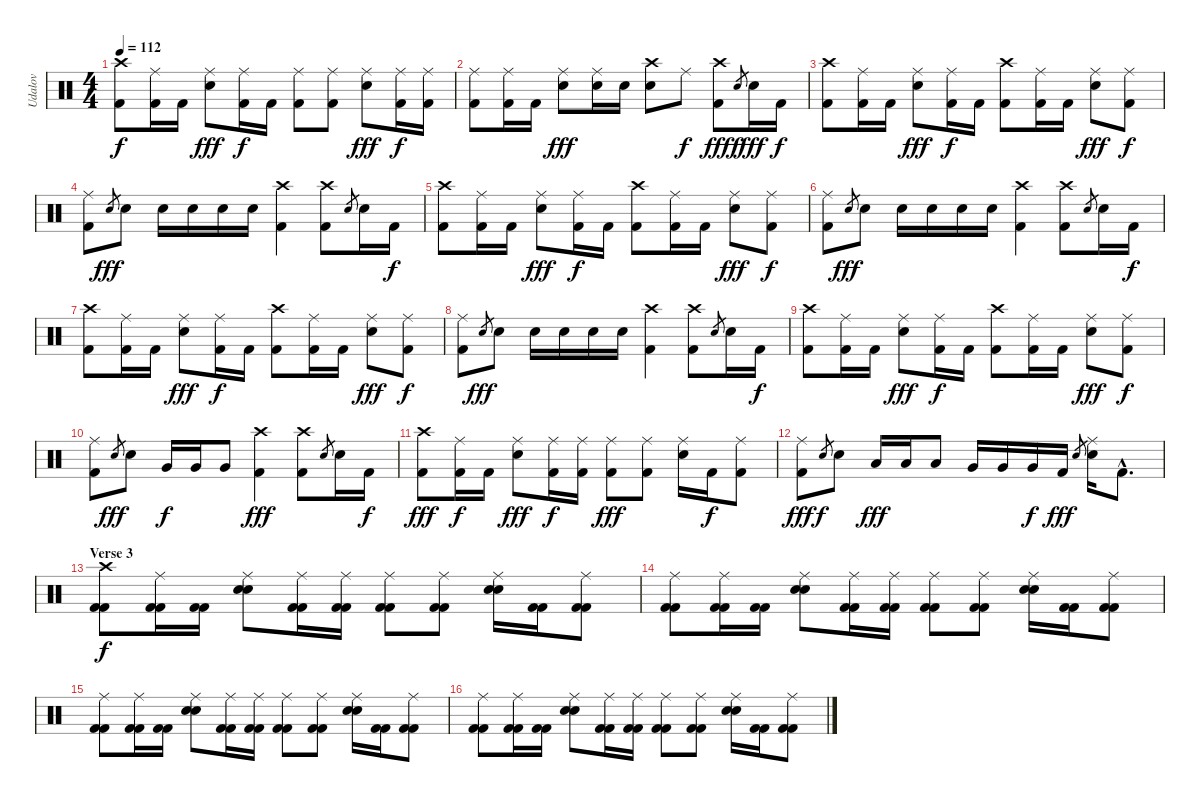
\track ("Udalov" "Udalov") {instrument percussion}
\staff {score}
\articulation defaults
\ts (4 4)
\tempo 112
\clef neutral
\ks c
("Crash high (hit)" "Kick (hit) 2").8{dy f} ("Ride (middle)" "Kick (hit) 2").16 "Kick (hit) 2".16 ("Ride (middle)" "Electric Snare (hit)").8{dy fff} ("Ride (middle)" "Kick (hit) 2").16{dy f} "Kick (hit) 2".16 ("Ride (middle)" "Kick (hit) 2").8 ("Ride (middle)" "Kick (hit) 2").8 ("Ride (middle)" "Electric Snare (hit)").8{dy fff} ("Ride (middle)" "Kick (hit) 2").16{dy f} ("Ride (middle)" "Kick (hit) 2").16 |
("Ride (middle)" "Kick (hit) 2").8 ("Ride (middle)" "Kick (hit) 2").16 "Kick (hit) 2".16 ("Ride (middle)" "Electric Snare (hit)").8{dy fff} ("Ride (middle)" "Electric Snare (hit)").16 "Electric Snare (hit)".16 ("Crash high (hit)" "Electric Snare (hit)").8 "Ride (middle)".8{dy f} ("Crash high (hit)" "Kick (hit) 2").8{dy fff} "Electric Snare (hit)".8{gr dy f} "Electric Snare (hit)".16{dy fff} "Kick (hit) 2".16{dy f} |
("Crash high (hit)" "Kick (hit) 2").8 ("Ride (middle)" "Kick (hit) 2").16 "Kick (hit) 2".16 ("Ride (middle)" "Electric Snare (hit)").8{dy fff} ("Ride (middle)" "Kick (hit) 2").16{dy f} "Kick (hit) 2".16 ("Crash high (hit)" "Kick (hit) 2").8 ("Ride (middle)" "Kick (hit) 2").16 "Kick (hit) 2".16 ("Ride (middle)" "Electric Snare (hit)").8{dy fff} ("Ride (middle)" "Kick (hit) 2").8{dy f} |
("Ride (middle)" "Kick (hit) 2").8 "Electric Snare (hit)".8{gr dy fff} "Electric Snare (hit)".8 "Electric Snare (hit)".16 "Electric Snare (hit)".16 "Electric Snare (hit)".16 "Electric Snare (hit)".16 ("Crash high (hit)" "Kick (hit) 2").4 ("Crash high (hit)" "Kick (hit) 2").8 "Electric Snare (hit)".8{gr} "Electric Snare (hit)".16 "Kick (hit) 2".16{dy f} |
("Crash high (hit)" "Kick (hit) 2").8 ("Ride (middle)" "Kick (hit) 2").16 "Kick (hit) 2".16 ("Ride (middle)" "Electric Snare (hit)").8{dy fff} ("Ride (middle)" "Kick (hit) 2").16{dy f} "Kick (hit) 2".16 ("Crash high (hit)" "Kick (hit) 2").8 ("Ride (middle)" "Kick (hit) 2").16 "Kick (hit) 2".16 ("Ride (middle)" "Electric Snare (hit)").8{dy fff} ("Ride (middle)" "Kick (hit) 2").8{dy f} |
("Ride (middle)" "Kick (hit) 2").8 "Electric Snare (hit)".8{gr dy fff} "Electric Snare (hit)".8 "Electric Snare (hit)".16 "Electric Snare (hit)".16 "Electric Snare (hit)".16 "Electric Snare (hit)".16 ("Crash high (hit)" "Kick (hit) 2").4 ("Crash high (hit)" "Kick (hit) 2").8 "Electric Snare (hit)".8{gr} "Electric Snare (hit)".16 "Kick (hit) 2".16{dy f} |
("Crash high (hit)" "Kick (hit) 2").8 ("Ride (middle)" "Kick (hit) 2").16 "Kick (hit) 2".16 ("Ride (middle)" "Electric Snare (hit)").8{dy fff} ("Ride (middle)" "Kick (hit) 2").16{dy f} "Kick (hit) 2".16 ("Crash high (hit)" "Kick (hit) 2").8 ("Ride (middle)" "Kick (hit) 2").16 "Kick (hit) 2".16 ("Ride (middle)" "Electric Snare (hit)").8{dy fff} ("Ride (middle)" "Kick (hit) 2").8{dy f} |
("Ride (middle)" "Kick (hit) 2").8 "Electric Snare (hit)".8{gr dy fff} "Electric Snare (hit)".8 "Electric Snare (hit)".16 "Electric Snare (hit)".16 "Electric Snare (hit)".16 "Electric Snare (hit)".16 ("Crash high (hit)" "Kick (hit) 2").4 ("Crash high (hit)" "Kick (hit) 2").8 "Electric Snare (hit)".8{gr} "Electric Snare (hit)".16 "Kick (hit) 2".16{dy f} |
("Crash high (hit)" "Kick (hit) 2").8 ("Ride (middle)" "Kick (hit) 2").16 "Kick (hit) 2".16 ("Ride (middle)" "Electric Snare (hit)").8{dy fff} ("Ride (middle)" "Kick (hit) 2").16{dy f} "Kick (hit) 2".16 ("Crash high (hit)" "Kick (hit) 2").8 ("Ride (middle)" "Kick (hit) 2").16 "Kick (hit) 2".16 ("Ride (middle)" "Electric Snare (hit)").8{dy fff} ("Ride (middle)" "Kick (hit) 2").8{dy f} |
("Ride (middle)" "Kick (hit) 2").8 "Electric Snare (hit)".8{gr dy fff} "Electric Snare (hit)".8 "Very Low Tom (hit)".16{dy f} "Very Low Tom (hit)".16 "Very Low Tom (hit)".8 ("Crash high (hit)" "Kick (hit) 2").4{dy fff} ("Crash high (hit)" "Kick (hit) 2").8 "Electric Snare (hit)".8{gr} "Electric Snare (hit)".16 "Kick (hit) 2".16{dy f} |
("Crash high (hit)" "Kick (hit) 2").8{dy fff} ("Ride (middle)" "Kick (hit) 2").16{dy f} "Kick (hit) 2".16 ("Ride (middle)" "Electric Snare (hit)").8{dy fff} ("Ride (middle)" "Kick (hit) 2").16{dy f} ("Ride (middle)" "Kick (hit) 2").16 ("Ride (middle)" "Kick (hit) 2").8{dy fff} ("Ride (middle)" "Kick (hit) 2").8 ("Ride (middle)" "Electric Snare (hit)").16 "Kick (hit) 2".16{dy f} ("Ride (middle)" "Kick (hit) 2").8 |
("Ride (middle)" "Kick (hit) 2").8{dy fff} "Electric Snare (hit)".8{gr dy f} "Electric Snare (hit)".8 "Low Tom (hit)".16{dy fff} "Low Tom (hit)".16 "Low Tom (hit)".8 "Very Low Tom (hit)".16 "Very Low Tom (hit)".16 "Very Low Tom (hit)".16{dy f} "Kick (hit) 2".16{dy fff} "Electric Snare (hit)".8{gr} ("Ride (middle)" "Electric Snare (hit)").16 "Kick (hit) 2"{hac}.8{d} |
\section ("" "Verse 3")
("Crash high (hit)" "Kick (hit) 2" "Kick (hit) 2").8{dy f} ("Ride (middle)" "Kick (hit) 2" "Kick (hit) 2").16 ("Kick (hit) 2" "Kick (hit) 2").16 ("Ride (middle)" "Electric Snare (hit)" "Electric Snare (hit)").8 ("Ride (middle)" "Kick (hit) 2" "Kick (hit) 2").16 ("Ride (middle)" "Kick (hit) 2" "Kick (hit) 2").16 ("Ride (middle)" "Kick (hit) 2" "Kick (hit) 2").8 ("Ride (middle)" "Kick (hit) 2" "Kick (hit) 2").8 ("Ride (middle)" "Electric Snare (hit)" "Electric Snare (hit)").16 ("Kick (hit) 2" "Kick (hit) 2").16 ("Ride (middle)" "Kick (hit) 2" "Kick (hit) 2").8 |
("Ride (middle)" "Kick (hit) 2" "Kick (hit) 2").8 ("Ride (middle)" "Kick (hit) 2" "Kick (hit) 2").16 ("Kick (hit) 2" "Kick (hit) 2").16 ("Ride (middle)" "Electric Snare (hit)" "Electric Snare (hit)").8 ("Ride (middle)" "Kick (hit) 2" "Kick (hit) 2").16 ("Ride (middle)" "Kick (hit) 2" "Kick (hit) 2").16 ("Ride (middle)" "Kick (hit) 2" "Kick (hit) 2").8 ("Ride (middle)" "Kick (hit) 2" "Kick (hit) 2").8 ("Ride (middle)" "Electric Snare (hit)" "Electric Snare (hit)").16 ("Kick (hit) 2" "Kick (hit) 2").16 ("Ride (middle)" "Kick (hit) 2" "Kick (hit) 2").8 |
("Ride (middle)" "Kick (hit) 2" "Kick (hit) 2").8 ("Ride (middle)" "Kick (hit) 2" "Kick (hit) 2").16 ("Kick (hit) 2" "Kick (hit) 2").16 ("Ride (middle)" "Electric Snare (hit)" "Electric Snare (hit)").8 ("Ride (middle)" "Kick (hit) 2" "Kick (hit) 2").16 ("Ride (middle)" "Kick (hit) 2" "Kick (hit) 2").16 ("Ride (middle)" "Kick (hit) 2" "Kick (hit) 2").8 ("Ride (middle)" "Kick (hit) 2" "Kick (hit) 2").8 ("Ride (middle)" "Electric Snare (hit)" "Electric Snare (hit)").16 ("Kick (hit) 2" "Kick (hit) 2").16 ("Ride (middle)" "Kick (hit) 2" "Kick (hit) 2").8 |
("Ride (middle)" "Kick (hit) 2" "Kick (hit) 2").8 ("Ride (middle)" "Kick (hit) 2" "Kick (hit) 2").16 ("Kick (hit) 2" "Kick (hit) 2").16 ("Ride (middle)" "Electric Snare (hit)" "Electric Snare (hit)").8 ("Ride (middle)" "Kick (hit) 2" "Kick (hit) 2").16 ("Ride (middle)" "Kick (hit) 2" "Kick (hit) 2").16 ("Ride (middle)" "Kick (hit) 2" "Kick (hit) 2").8 ("Ride (middle)" "Kick (hit) 2" "Kick (hit) 2").8 ("Ride (middle)" "Electric Snare (hit)" "Electric Snare (hit)").16 ("Kick (hit) 2" "Kick (hit) 2").16 ("Ride (middle)" "Kick (hit) 2" "Kick (hit) 2").8
